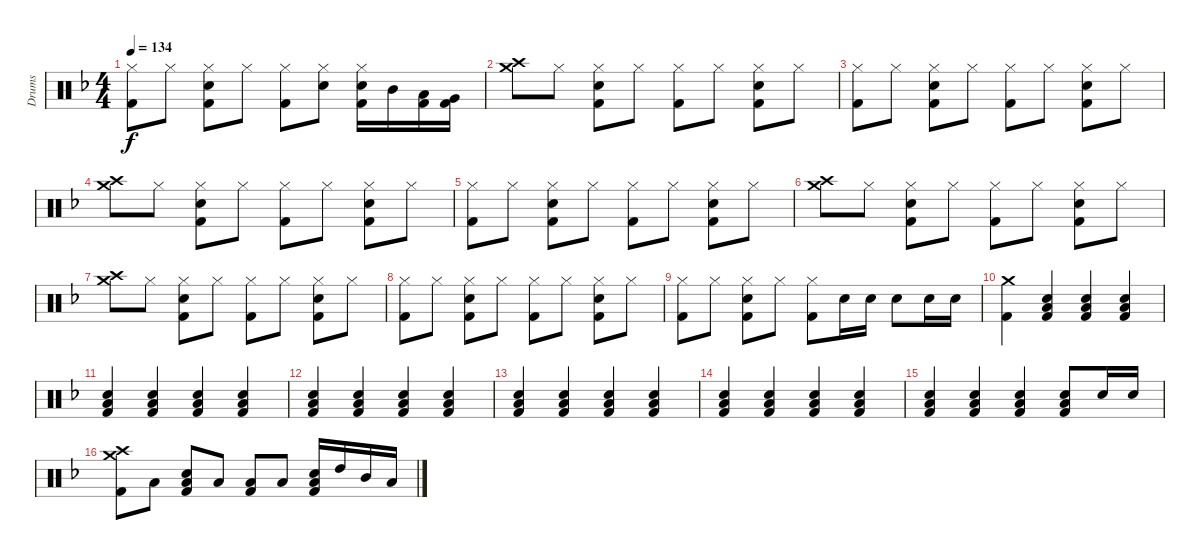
\track ("Drums" "Drums") {instrument percussion}
\staff {score}
\articulation defaults
\ts (4 4)
\tempo 134
\clef neutral
\ks f
("Hi-Hat (closed)" "Kick (hit) 2").8{dy f} "Hi-Hat (closed)".8 ("Hi-Hat (closed)" "Kick (hit) 2" "Snare (hit) 2").8 "Hi-Hat (closed)".8 ("Hi-Hat (closed)" "Kick (hit) 2").8 ("Hi-Hat (closed)" "Snare (hit) 2").8 ("Hi-Hat (closed)" "Kick (hit) 2" "Snare (hit) 2").16 "Mid Tom (hit)".16 ("Low Tom (hit)" "Kick (hit) 2").16 ("Very Low Tom (hit)" "Kick (hit) 2").16 |
("Crash high (hit)" "Crash medium (hit)").8 "Hi-Hat (closed)".8 ("Hi-Hat (closed)" "Kick (hit) 2" "Snare (hit) 2").8 "Hi-Hat (closed)".8 ("Hi-Hat (closed)" "Kick (hit) 2").8 "Hi-Hat (closed)".8 ("Hi-Hat (closed)" "Kick (hit) 2" "Snare (hit) 2").8 "Hi-Hat (closed)".8 |
("Hi-Hat (closed)" "Kick (hit) 2").8 "Hi-Hat (closed)".8 ("Hi-Hat (closed)" "Kick (hit) 2" "Snare (hit) 2").8 "Hi-Hat (closed)".8 ("Hi-Hat (closed)" "Kick (hit) 2").8 "Hi-Hat (closed)".8 ("Hi-Hat (closed)" "Kick (hit) 2" "Snare (hit) 2").8 "Hi-Hat (closed)".8 |
("Crash high (hit)" "Crash medium (hit)").8 "Hi-Hat (closed)".8 ("Hi-Hat (closed)" "Kick (hit) 2" "Snare (hit) 2").8 "Hi-Hat (closed)".8 ("Hi-Hat (closed)" "Kick (hit) 2").8 "Hi-Hat (closed)".8 ("Hi-Hat (closed)" "Kick (hit) 2" "Snare (hit) 2").8 "Hi-Hat (closed)".8 |
("Hi-Hat (closed)" "Kick (hit) 2").8 "Hi-Hat (closed)".8 ("Hi-Hat (closed)" "Kick (hit) 2" "Snare (hit) 2").8 "Hi-Hat (closed)".8 ("Hi-Hat (closed)" "Kick (hit) 2").8 "Hi-Hat (closed)".8 ("Hi-Hat (closed)" "Kick (hit) 2" "Snare (hit) 2").8 "Hi-Hat (closed)".8 |
("Crash medium (hit)" "Crash high (hit)").8 "Hi-Hat (closed)".8 ("Hi-Hat (closed)" "Kick (hit) 2" "Snare (hit) 2").8 "Hi-Hat (closed)".8 ("Hi-Hat (closed)" "Kick (hit) 2").8 "Hi-Hat (closed)".8 ("Hi-Hat (closed)" "Kick (hit) 2" "Snare (hit) 2").8 "Hi-Hat (closed)".8 |
("Crash high (hit)" "Crash medium (hit)").8 "Hi-Hat (closed)".8 ("Hi-Hat (closed)" "Kick (hit) 2" "Snare (hit) 2").8 "Hi-Hat (closed)".8 ("Hi-Hat (closed)" "Kick (hit) 2").8 "Hi-Hat (closed)".8 ("Hi-Hat (closed)" "Kick (hit) 2" "Snare (hit) 2").8 "Hi-Hat (closed)".8 |
("Hi-Hat (closed)" "Kick (hit) 2").8 "Hi-Hat (closed)".8 ("Hi-Hat (closed)" "Kick (hit) 2" "Snare (hit) 2").8 "Hi-Hat (closed)".8 ("Hi-Hat (closed)" "Kick (hit) 2").8 "Hi-Hat (closed)".8 ("Hi-Hat (closed)" "Kick (hit) 2" "Snare (hit) 2").8 "Hi-Hat (closed)".8 |
("Hi-Hat (closed)" "Kick (hit) 2").8 "Hi-Hat (closed)".8 ("Hi-Hat (closed)" "Kick (hit) 2" "Snare (hit) 2").8 "Hi-Hat (closed)".8 ("Hi-Hat (closed)" "Kick (hit) 2").8 "Snare (hit) 2".16 "Snare (hit) 2".16 "Snare (hit) 2".8 "Snare (hit) 2".16 "Snare (hit) 2".16 |
("Crash medium (hit)" "Kick (hit) 2").4 ("Low Tom (hit)" "Kick (hit) 2" "Snare (hit) 2").4 ("Low Tom (hit)" "Kick (hit) 2" "Snare (hit) 2").4 ("Low Tom (hit)" "Kick (hit) 2" "Snare (hit) 2").4 |
("Low Tom (hit)" "Kick (hit) 2" "Snare (hit) 2").4 ("Low Tom (hit)" "Kick (hit) 2" "Snare (hit) 2").4 ("Low Tom (hit)" "Kick (hit) 2" "Snare (hit) 2").4 ("Low Tom (hit)" "Kick (hit) 2" "Snare (hit) 2").4 |
("Low Tom (hit)" "Kick (hit) 2" "Snare (hit) 2").4 ("Low Tom (hit)" "Kick (hit) 2" "Snare (hit) 2").4 ("Low Tom (hit)" "Kick (hit) 2" "Snare (hit) 2").4 ("Low Tom (hit)" "Kick (hit) 2" "Snare (hit) 2").4 |
("Low Tom (hit)" "Kick (hit) 2" "Snare (hit) 2").4 ("Low Tom (hit)" "Kick (hit) 2" "Snare (hit) 2").4 ("Low Tom (hit)" "Kick (hit) 2" "Snare (hit) 2").4 ("Low Tom (hit)" "Kick (hit) 2" "Snare (hit) 2").4 |
("Low Tom (hit)" "Kick (hit) 2" "Snare (hit) 2").4 ("Low Tom (hit)" "Kick (hit) 2" "Snare (hit) 2").4 ("Low Tom (hit)" "Kick (hit) 2" "Snare (hit) 2").4 ("Low Tom (hit)" "Kick (hit) 2" "Snare (hit) 2").4 |
("Low Tom (hit)" "Kick (hit) 2" "Snare (hit) 2").4 ("Low Tom (hit)" "Kick (hit) 2" "Snare (hit) 2").4 ("Low Tom (hit)" "Kick (hit) 2" "Snare (hit) 2").4 ("Low Tom (hit)" "Kick (hit) 2" "Snare (hit) 2").8 "Snare (hit) 2".16 "Snare (hit) 2".16 |
("Crash high (hit)" "Crash medium (hit)" "Kick (hit) 2").8 "Low Tom (hit)".8 ("Low Tom (hit)" "Snare (hit) 2" "Kick (hit) 2").8 "Low Tom (hit)".8 ("Low Tom (hit)" "Kick (hit) 2").8 "Low Tom (hit)".8 ("Low Tom (hit)" "Snare (hit) 2" "Kick (hit) 2").16 "High Tom (hit)".16 "Mid Tom (hit)".16 "Low Tom (hit)".16
